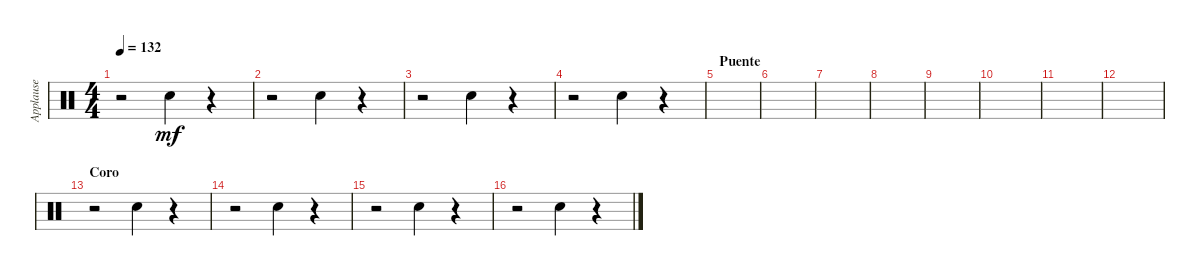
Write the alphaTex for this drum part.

\track ("Applause" "Applause") {instrument percussion}
\staff {score}
\articulation defaults
\ts (4 4)
\tempo 132
\clef neutral
\ks c
r.2{dy mf} "Hand Clap (hit)".4 r.4 |
r.2 "Hand Clap (hit)".4 r.4 |
r.2 "Hand Clap (hit)".4 r.4 |
r.2 "Hand Clap (hit)".4 r.4 |
\section ("" "Puente")
|
|
|
|
|
|
|
|
\section ("" "Coro")
r.2 "Hand Clap (hit)".4 r.4 |
r.2 "Hand Clap (hit)".4 r.4 |
r.2 "Hand Clap (hit)".4 r.4 |
r.2 "Hand Clap (hit)".4 r.4
